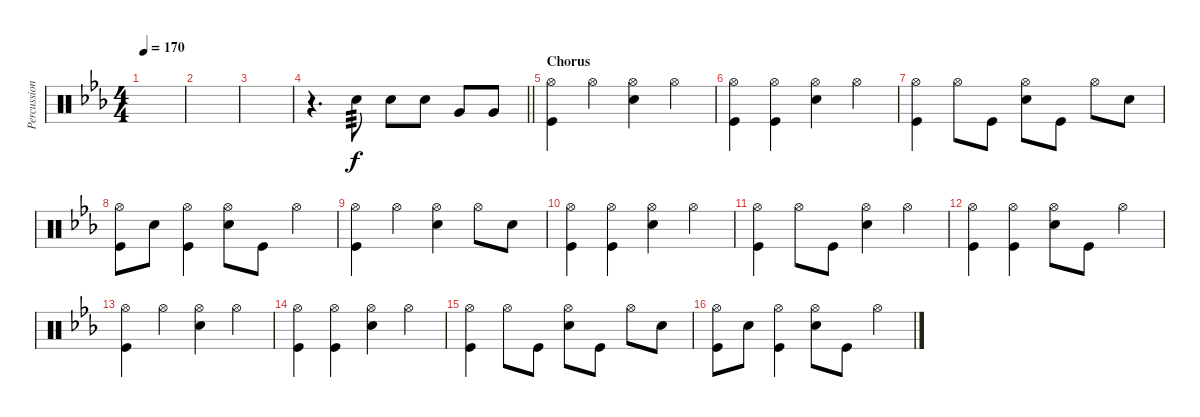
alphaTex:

\track ("Percussion" "Percussion") {instrument percussion}
\staff {score}
\articulation defaults
\ts (4 4)
\tempo 170
\clef neutral
\ks eb
|
|
|
\barLineRight lightlight
r.4{d} "Snare (hit) 2".8{tp 3} "Snare (hit) 2".8 "Snare (hit) 2".8 "Very Low Tom (hit)".8 "Very Low Tom (hit)".8 |
\section ("" "Chorus")
("Kick (hit)" "Hi-Hat (open)").4 "Hi-Hat (open)".4 ("Hi-Hat (open)" "Snare (hit) 2").4 "Hi-Hat (open)".4 |
("Hi-Hat (open)" "Kick (hit)").4 ("Kick (hit)" "Hi-Hat (open)").4 ("Hi-Hat (open)" "Snare (hit) 2").4 "Hi-Hat (open)".4 |
("Hi-Hat (open)" "Kick (hit)").4 "Hi-Hat (open)".8 "Kick (hit)".8 ("Hi-Hat (open)" "Snare (hit) 2").8 "Kick (hit)".8 "Hi-Hat (open)".8 "Snare (hit) 2".8 |
("Hi-Hat (open)" "Kick (hit)").8 "Snare (hit) 2".8 ("Kick (hit)" "Hi-Hat (open)").4 ("Hi-Hat (open)" "Snare (hit) 2").8 "Kick (hit)".8 "Hi-Hat (open)".4 |
("Kick (hit)" "Hi-Hat (open)").4 "Hi-Hat (open)".4 ("Hi-Hat (open)" "Snare (hit) 2").4 "Hi-Hat (open)".8 "Snare (hit) 2".8 |
("Hi-Hat (open)" "Kick (hit)").4 ("Kick (hit)" "Hi-Hat (open)").4 ("Hi-Hat (open)" "Snare (hit) 2").4 "Hi-Hat (open)".4 |
("Kick (hit)" "Hi-Hat (open)").4 "Hi-Hat (open)".8 "Kick (hit)".8 ("Hi-Hat (open)" "Snare (hit) 2").4 "Hi-Hat (open)".4 |
("Hi-Hat (open)" "Kick (hit)").4 ("Kick (hit)" "Hi-Hat (open)").4 ("Hi-Hat (open)" "Snare (hit) 2").8 "Kick (hit)".8 "Hi-Hat (open)".4 |
("Kick (hit)" "Hi-Hat (open)").4 "Hi-Hat (open)".4 ("Hi-Hat (open)" "Snare (hit) 2").4 "Hi-Hat (open)".4 |
("Hi-Hat (open)" "Kick (hit)").4 ("Kick (hit)" "Hi-Hat (open)").4 ("Hi-Hat (open)" "Snare (hit) 2").4 "Hi-Hat (open)".4 |
("Hi-Hat (open)" "Kick (hit)").4 "Hi-Hat (open)".8 "Kick (hit)".8 ("Hi-Hat (open)" "Snare (hit) 2").8 "Kick (hit)".8 "Hi-Hat (open)".8 "Snare (hit) 2".8 |
("Hi-Hat (open)" "Kick (hit)").8 "Snare (hit) 2".8 ("Kick (hit)" "Hi-Hat (open)").4 ("Hi-Hat (open)" "Snare (hit) 2").8 "Kick (hit)".8 "Hi-Hat (open)".4
